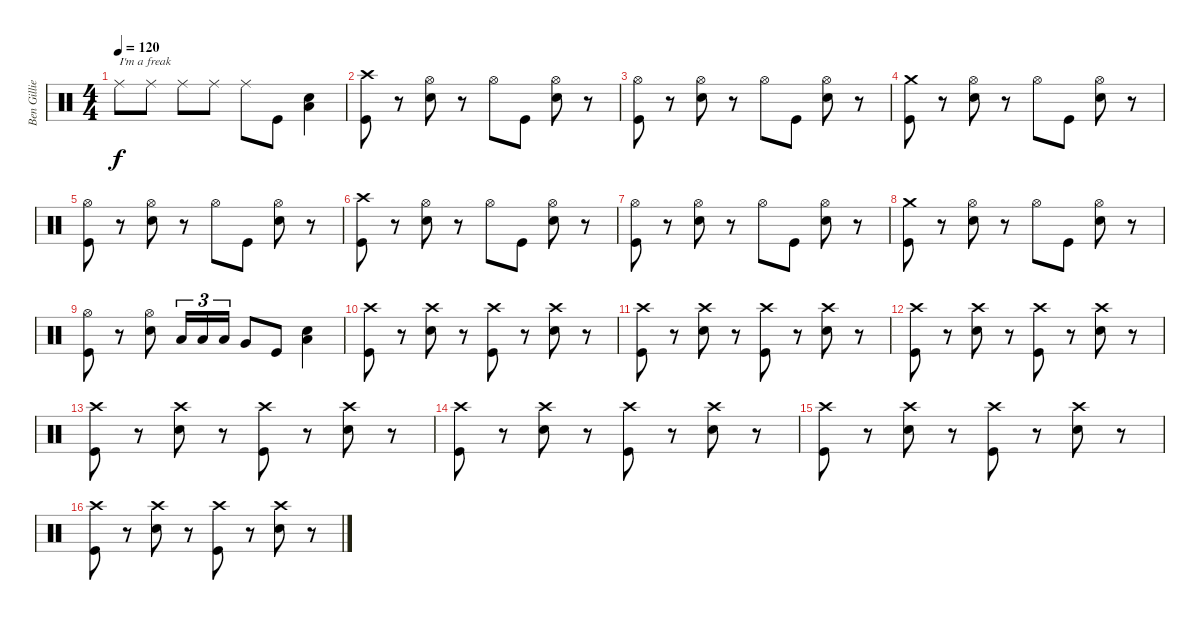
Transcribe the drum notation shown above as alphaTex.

\track ("Ben Gillies" "Ben Gillie") {instrument percussion}
\staff {score}
\articulation defaults
\ts (4 4)
\tempo 120
\clef neutral
\ks c "Ride (middle)".8{txt "I'm a freak" dy f} "Ride (middle)".8 "Ride (middle)".8 "Ride (middle)".8 "Ride (middle)".8 "Kick (hit)".8
("Low Floor Tom (hit)" "Electric Snare (hit)").4 |
("Crash high (hit)" "Kick (hit)").8 r.8 ("Electric Snare (hit)" "Hi-Hat (open)").8 r.8 "Hi-Hat (open)".8 "Kick (hit)".8 ("Electric Snare (hit)" "Hi-Hat (open)").8 r.8 |
("Hi-Hat (open)" "Kick (hit)").8 r.8 ("Electric Snare (hit)" "Hi-Hat (open)").8 r.8 "Hi-Hat (open)".8 "Kick (hit)".8 ("Electric Snare (hit)" "Hi-Hat (open)").8 r.8 |
("Crash medium (hit)" "Kick (hit)").8 r.8 ("Electric Snare (hit)" "Hi-Hat (open)").8 r.8 "Hi-Hat (open)".8 "Kick (hit)".8 ("Electric Snare (hit)" "Hi-Hat (open)").8 r.8 |
("Hi-Hat (open)" "Kick (hit)").8 r.8 ("Electric Snare (hit)" "Hi-Hat (open)").8 r.8 "Hi-Hat (open)".8 "Kick (hit)".8 ("Electric Snare (hit)" "Hi-Hat (open)").8 r.8 |
("Crash high (hit)" "Kick (hit)").8 r.8 ("Electric Snare (hit)" "Hi-Hat (open)").8 r.8 "Hi-Hat (open)".8 "Kick (hit)".8 ("Electric Snare (hit)" "Hi-Hat (open)").8 r.8 |
("Hi-Hat (open)" "Kick (hit)").8 r.8 ("Electric Snare (hit)" "Hi-Hat (open)").8 r.8 "Hi-Hat (open)".8 "Kick (hit)".8 ("Electric Snare (hit)" "Hi-Hat (open)").8 r.8 |
("Crash medium (hit)" "Kick (hit)").8 r.8 ("Electric Snare (hit)" "Hi-Hat (open)").8 r.8 "Hi-Hat (open)".8 "Kick (hit)".8 ("Electric Snare (hit)" "Hi-Hat (open)").8 r.8 |
("Hi-Hat (open)" "Kick (hit)").8 r.8 ("Electric Snare (hit)" "Hi-Hat (open)").8 "Low Tom (hit)".16{tu (3 2)} "Low Tom (hit)".16{tu (3 2)} "Low Tom (hit)".16{tu (3 2)} "Very Low Tom (hit)".8 "Kick (hit)".8 ("Electric Snare (hit)" "Low Floor Tom (hit)").4 |
("Crash high (hit)" "Kick (hit)").8 r.8 ("Electric Snare (hit)" "Crash high (hit)").8 r.8 ("Crash high (hit)" "Kick (hit)").8 r.8 ("Electric Snare (hit)" "Crash high (hit)").8 r.8 |
("Crash high (hit)" "Kick (hit)").8 r.8 ("Electric Snare (hit)" "Crash high (hit)").8 r.8 ("Crash high (hit)" "Kick (hit)").8 r.8 ("Electric Snare (hit)" "Crash high (hit)").8 r.8 |
("Crash high (hit)" "Kick (hit)").8 r.8 ("Electric Snare (hit)" "Crash high (hit)").8 r.8 ("Crash high (hit)" "Kick (hit)").8 r.8 ("Electric Snare (hit)" "Crash high (hit)").8 r.8 |
("Crash high (hit)" "Kick (hit)").8 r.8 ("Electric Snare (hit)" "Crash high (hit)").8 r.8 ("Crash high (hit)" "Kick (hit)").8 r.8 ("Electric Snare (hit)" "Crash high (hit)").8 r.8 |
("Crash high (hit)" "Kick (hit)").8 r.8 ("Electric Snare (hit)" "Crash high (hit)").8 r.8 ("Crash high (hit)" "Kick (hit)").8 r.8 ("Electric Snare (hit)" "Crash high (hit)").8 r.8 |
("Crash high (hit)" "Kick (hit)").8 r.8 ("Electric Snare (hit)" "Crash high (hit)").8 r.8 ("Crash high (hit)" "Kick (hit)").8 r.8 ("Electric Snare (hit)" "Crash high (hit)").8 r.8 |
("Crash high (hit)" "Kick (hit)").8 r.8 ("Electric Snare (hit)" "Crash high (hit)").8 r.8 ("Crash high (hit)" "Kick (hit)").8 r.8 ("Electric Snare (hit)" "Crash high (hit)").8 r.8
